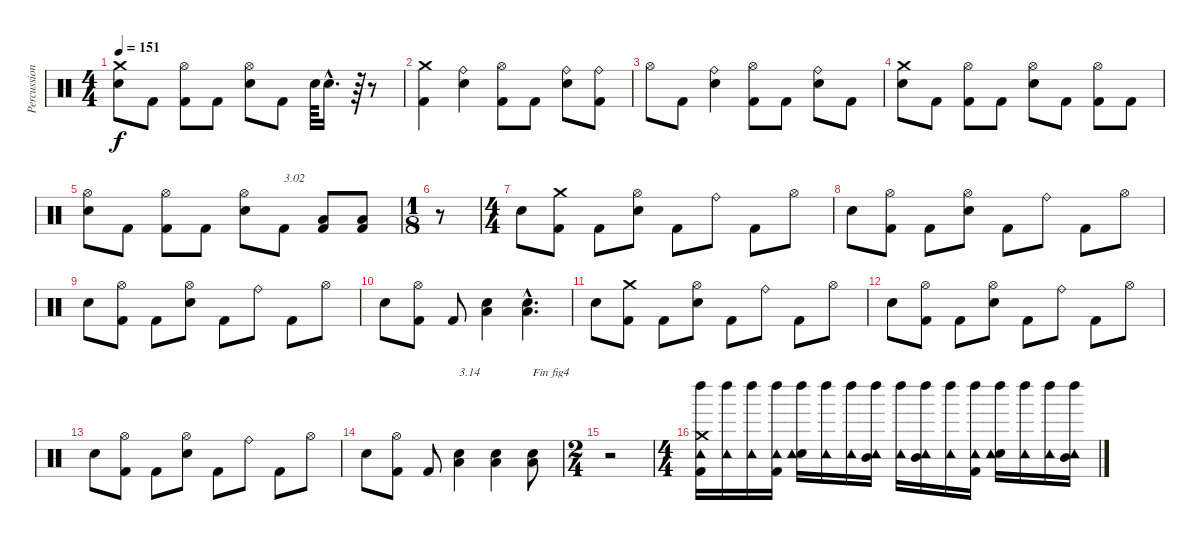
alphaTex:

\track ("Percussions" "Percussion") {instrument percussion}
\staff {score}
\articulation defaults
\ts (4 4)
\tempo 151
\clef neutral
\ks c
("Electric Snare (hit)" "Crash medium (hit)").8{dy f} "Kick (hit) 2".8 ("Kick (hit) 2" "Hi-Hat (open)").8 "Kick (hit) 2".8 ("Electric Snare (hit)" "Hi-Hat (open)").8 "Kick (hit) 2".8 "Electric Snare (hit)".64 "Electric Snare (hit)"{hac}.16{d} r.64 r.8 |
("Kick (hit) 2" "Crash medium (hit)").4 ("Electric Snare (hit)" "Ride (bell)").4 ("Kick (hit) 2" "Hi-Hat (open)").8 "Kick (hit) 2".8 ("Electric Snare (hit)" "Ride (bell)").8 ("Kick (hit) 2" "Ride (bell)").8 |
"Hi-Hat (open)".8 "Kick (hit) 2".8 ("Electric Snare (hit)" "Ride (bell)").4 ("Kick (hit) 2" "Hi-Hat (open)").8 "Kick (hit) 2".8 ("Electric Snare (hit)" "Ride (bell)").8 "Kick (hit) 2".8 |
("Electric Snare (hit)" "Crash medium (hit)").8 "Kick (hit) 2".8 ("Kick (hit) 2" "Hi-Hat (open)").8 "Kick (hit) 2".8 ("Electric Snare (hit)" "Hi-Hat (open)").8 "Kick (hit) 2".8 ("Kick (hit) 2" "Hi-Hat (open)").8 "Kick (hit) 2".8 |
("Electric Snare (hit)" "Hi-Hat (open)").8 "Kick (hit) 2".8 ("Kick (hit) 2" "Hi-Hat (open)").8 "Kick (hit) 2".8 ("Electric Snare (hit)" "Hi-Hat (open)").8 "Kick (hit) 2".8{txt "3.02"} ("Kick (hit) 2" "Low Floor Tom (hit)").8 ("Kick (hit) 2" "Low Floor Tom (hit)").8 |
\ts (1 8)
r.8 |
\ts (4 4)
"Electric Snare (hit)".8 ("Kick (hit) 2" "Crash medium (hit)").8 "Kick (hit) 2".8 ("Electric Snare (hit)" "Hi-Hat (open)").8 "Kick (hit) 2".8 "Ride (bell)".8 "Kick (hit) 2".8 "Hi-Hat (open)".8 |
"Electric Snare (hit)".8 ("Kick (hit) 2" "Hi-Hat (open)").8 "Kick (hit) 2".8 ("Electric Snare (hit)" "Hi-Hat (open)").8 "Kick (hit) 2".8 "Ride (bell)".8 "Kick (hit) 2".8 "Hi-Hat (open)".8 |
"Electric Snare (hit)".8 ("Kick (hit) 2" "Hi-Hat (open)").8 "Kick (hit) 2".8 ("Electric Snare (hit)" "Hi-Hat (open)").8 "Kick (hit) 2".8 "Ride (bell)".8 "Kick (hit) 2".8 "Hi-Hat (open)".8 |
"Electric Snare (hit)".8 ("Kick (hit) 2" "Hi-Hat (open)").8 "Kick (hit) 2".8 ("Electric Snare (hit)" "Low Floor Tom (hit)").4 ("Electric Snare (hit)"{hac} "Low Floor Tom (hit)"{hac}).4{d} |
"Electric Snare (hit)".8 ("Kick (hit) 2" "Crash medium (hit)").8 "Kick (hit) 2".8 ("Electric Snare (hit)" "Hi-Hat (open)").8 "Kick (hit) 2".8 "Ride (bell)".8 "Kick (hit) 2".8 "Hi-Hat (open)".8 |
"Electric Snare (hit)".8 ("Kick (hit) 2" "Hi-Hat (open)").8 "Kick (hit) 2".8 ("Electric Snare (hit)" "Hi-Hat (open)").8 "Kick (hit) 2".8 "Ride (bell)".8 "Kick (hit) 2".8 "Hi-Hat (open)".8 |
"Electric Snare (hit)".8 ("Kick (hit) 2" "Hi-Hat (open)").8 "Kick (hit) 2".8 ("Electric Snare (hit)" "Hi-Hat (open)").8 "Kick (hit) 2".8 "Ride (bell)".8 "Kick (hit) 2".8 "Hi-Hat (open)".8 |
"Electric Snare (hit)".8 ("Kick (hit) 2" "Hi-Hat (open)").8 "Kick (hit) 2".8 ("Electric Snare (hit)" "Low Floor Tom (hit)").4{txt "3.14"} ("Electric Snare (hit)" "Low Floor Tom (hit)").4 ("Electric Snare (hit)" "Low Floor Tom (hit)").8{txt "Fin fig4"} |
\ts (2 4)
r.2 |
\ts (4 4)
("Kick (hit) 2" "Crash medium (hit)" "Tambourine (hit)" "Left Maraca (hit)").16 ("Tambourine (hit)" "Left Maraca (hit)").16 ("Tambourine (hit)" "Left Maraca (hit)").16 ("Kick (hit) 2" "Tambourine (hit)" "Left Maraca (hit)").16 ("Snare (hit) 2" "Tambourine (hit)" "Left Maraca (hit)").16 ("Tambourine (hit)" "Left Maraca (hit)").16 ("Tambourine (hit)" "Left Maraca (hit)").16 ("Mid Tom (hit)" "Tambourine (hit)" "Left Maraca (hit)").16 ("Tambourine (hit)" "Left Maraca (hit)").16 ("Mid Tom (hit)" "Tambourine (hit)" "Left Maraca (hit)").16 ("Tambourine (hit)" "Left Maraca (hit)").16 ("Kick (hit) 2" "Tambourine (hit)" "Left Maraca (hit)").16 ("Snare (hit) 2" "Tambourine (hit)" "Left Maraca (hit)").16 ("Tambourine (hit)" "Left Maraca (hit)").16 ("Tambourine (hit)" "Left Maraca (hit)").16 ("Mid Tom (hit)" "Tambourine (hit)" "Left Maraca (hit)").16
